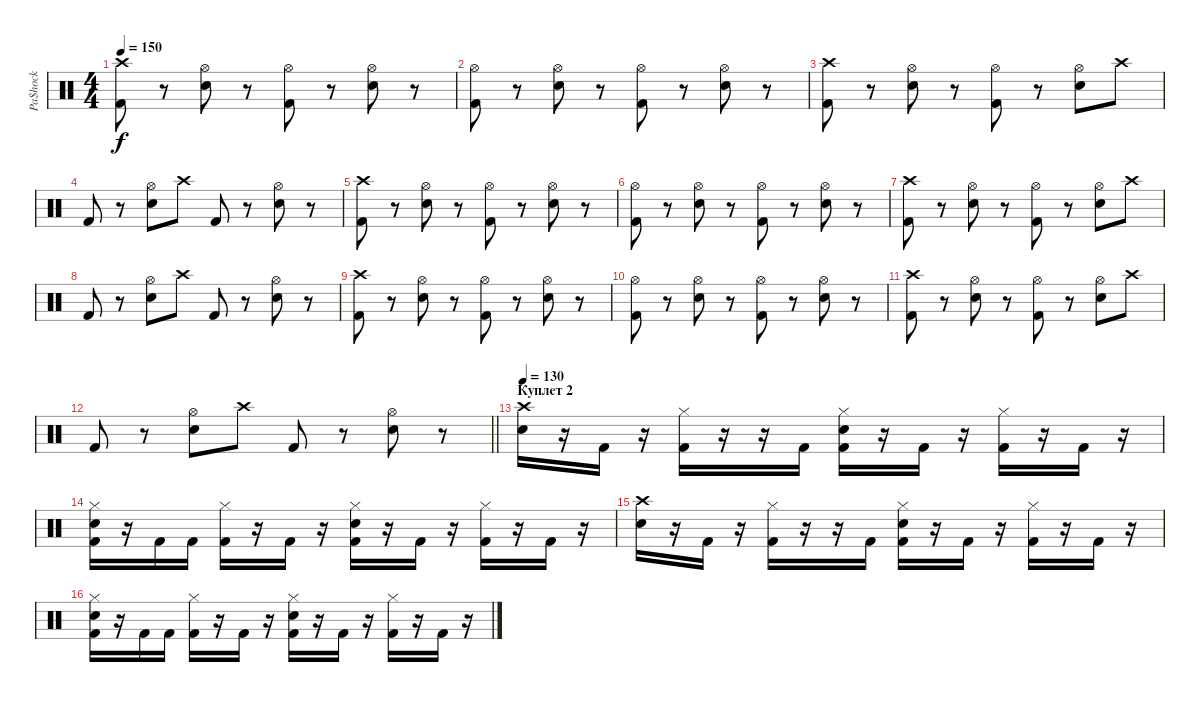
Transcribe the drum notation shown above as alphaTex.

\track ("Pa$hock" "Pa$hock") {instrument percussion}
\staff {score}
\articulation defaults
\ts (4 4)
\tempo 150
\clef neutral
\ks c
("Crash high (hit)" "Kick (hit) 2").8{dy f} r.8 ("Hi-Hat (open)" "Snare (hit) 2").8 r.8 ("Hi-Hat (open)" "Kick (hit) 2").8 r.8 ("Hi-Hat (open)" "Snare (hit) 2").8 r.8 |
("Hi-Hat (open)" "Kick (hit) 2").8 r.8 ("Hi-Hat (open)" "Snare (hit) 2").8 r.8 ("Hi-Hat (open)" "Kick (hit) 2").8 r.8 ("Hi-Hat (open)" "Snare (hit) 2").8 r.8 |
("Crash high (hit)" "Kick (hit) 2").8 r.8 ("Hi-Hat (open)" "Snare (hit) 2").8 r.8 ("Hi-Hat (open)" "Kick (hit) 2").8 r.8 ("Hi-Hat (open)" "Snare (hit) 2").8 "Crash high (hit)".8 |
"Kick (hit) 2".8 r.8 ("Hi-Hat (open)" "Snare (hit) 2").8 "Crash high (hit)".8 "Kick (hit) 2".8 r.8 ("Hi-Hat (open)" "Snare (hit) 2").8 r.8 |
("Crash high (hit)" "Kick (hit) 2").8 r.8 ("Hi-Hat (open)" "Snare (hit) 2").8 r.8 ("Hi-Hat (open)" "Kick (hit) 2").8 r.8 ("Hi-Hat (open)" "Snare (hit) 2").8 r.8 |
("Hi-Hat (open)" "Kick (hit) 2").8 r.8 ("Hi-Hat (open)" "Snare (hit) 2").8 r.8 ("Hi-Hat (open)" "Kick (hit) 2").8 r.8 ("Hi-Hat (open)" "Snare (hit) 2").8 r.8 |
("Crash high (hit)" "Kick (hit) 2").8 r.8 ("Hi-Hat (open)" "Snare (hit) 2").8 r.8 ("Hi-Hat (open)" "Kick (hit) 2").8 r.8 ("Hi-Hat (open)" "Snare (hit) 2").8 "Crash high (hit)".8 |
"Kick (hit) 2".8 r.8 ("Hi-Hat (open)" "Snare (hit) 2").8 "Crash high (hit)".8 "Kick (hit) 2".8 r.8 ("Hi-Hat (open)" "Snare (hit) 2").8 r.8 |
("Crash high (hit)" "Kick (hit) 2").8 r.8 ("Hi-Hat (open)" "Snare (hit) 2").8 r.8 ("Hi-Hat (open)" "Kick (hit) 2").8 r.8 ("Hi-Hat (open)" "Snare (hit) 2").8 r.8 |
("Hi-Hat (open)" "Kick (hit) 2").8 r.8 ("Hi-Hat (open)" "Snare (hit) 2").8 r.8 ("Hi-Hat (open)" "Kick (hit) 2").8 r.8 ("Hi-Hat (open)" "Snare (hit) 2").8 r.8 |
("Crash high (hit)" "Kick (hit) 2").8 r.8 ("Hi-Hat (open)" "Snare (hit) 2").8 r.8 ("Hi-Hat (open)" "Kick (hit) 2").8 r.8 ("Hi-Hat (open)" "Snare (hit) 2").8 "Crash high (hit)".8 |
\barLineRight lightlight "Kick (hit) 2".8
r.8 ("Hi-Hat (open)" "Snare (hit) 2").8 "Crash high (hit)".8 "Kick (hit) 2".8 r.8 ("Hi-Hat (open)" "Snare (hit) 2").8 r.8 |
\section ("" "Куплет 2")
\tempo 130
("Crash high (hit)" "Snare (hit) 2").16 r.16 "Kick (hit) 2".16 r.16 ("Hi-Hat (closed)" "Kick (hit) 2").16 r.16 r.16 "Kick (hit) 2".16 ("Hi-Hat (closed)" "Kick (hit) 2" "Snare (hit) 2").16 r.16 "Kick (hit) 2".16 r.16 ("Kick (hit) 2" "Hi-Hat (closed)").16 r.16 "Kick (hit) 2".16 r.16 |
("Kick (hit) 2" "Snare (hit) 2" "Hi-Hat (closed)").16 r.16 "Kick (hit) 2".16 "Kick (hit) 2".16 ("Kick (hit) 2" "Hi-Hat (closed)").16 r.16 "Kick (hit) 2".16 r.16 ("Kick (hit) 2" "Hi-Hat (closed)" "Snare (hit) 2").16 r.16 "Kick (hit) 2".16 r.16 ("Kick (hit) 2" "Hi-Hat (closed)").16 r.16 "Kick (hit) 2".16 r.16 |
("Crash high (hit)" "Snare (hit) 2").16 r.16 "Kick (hit) 2".16 r.16 ("Hi-Hat (closed)" "Kick (hit) 2").16 r.16 r.16 "Kick (hit) 2".16 ("Hi-Hat (closed)" "Kick (hit) 2" "Snare (hit) 2").16 r.16 "Kick (hit) 2".16 r.16 ("Kick (hit) 2" "Hi-Hat (closed)").16 r.16 "Kick (hit) 2".16 r.16 |
("Kick (hit) 2" "Snare (hit) 2" "Hi-Hat (closed)").16 r.16 "Kick (hit) 2".16 "Kick (hit) 2".16 ("Kick (hit) 2" "Hi-Hat (closed)").16 r.16 "Kick (hit) 2".16 r.16 ("Kick (hit) 2" "Hi-Hat (closed)" "Snare (hit) 2").16 r.16 "Kick (hit) 2".16 r.16 ("Kick (hit) 2" "Hi-Hat (closed)").16 r.16 "Kick (hit) 2".16 r.16
